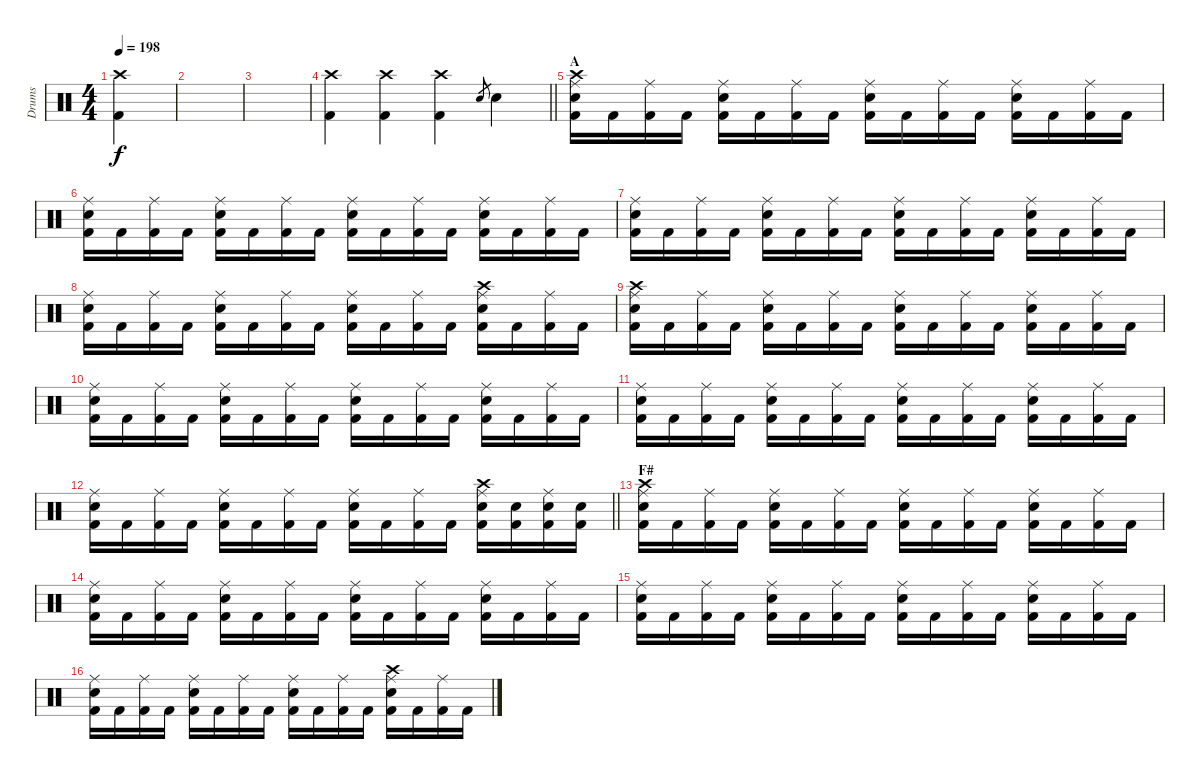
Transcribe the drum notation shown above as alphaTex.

\track ("Drums" "Drums") {instrument percussion}
\staff {score}
\articulation defaults
\ts (4 4)
\tempo 198
\clef neutral
\ks c
("Crash high (hit)" "Kick (hit) 2").4{dy f} |
|
|
\barLineRight lightlight
("Crash high (hit)" "Kick (hit) 2").4 ("Crash high (hit)" "Kick (hit) 2").4 ("Crash high (hit)" "Kick (hit) 2").4 "Snare (hit) 2".8{gr} "Snare (hit) 2".4 |
\section ("" "A")
("Crash high (hit)" "Ride (middle)" "Snare (hit) 2" "Kick (hit) 2").16 "Kick (hit) 2".16 ("Ride (middle)" "Kick (hit) 2").16 "Kick (hit) 2".16 ("Ride (middle)" "Snare (hit) 2" "Kick (hit) 2").16 "Kick (hit) 2".16 ("Ride (middle)" "Kick (hit) 2").16 "Kick (hit) 2".16 ("Ride (middle)" "Snare (hit) 2" "Kick (hit) 2").16 "Kick (hit) 2".16 ("Ride (middle)" "Kick (hit) 2").16 "Kick (hit) 2".16 ("Ride (middle)" "Snare (hit) 2" "Kick (hit) 2").16 "Kick (hit) 2".16 ("Ride (middle)" "Kick (hit) 2").16 "Kick (hit) 2".16 |
("Ride (middle)" "Snare (hit) 2" "Kick (hit) 2").16 "Kick (hit) 2".16 ("Ride (middle)" "Kick (hit) 2").16 "Kick (hit) 2".16 ("Ride (middle)" "Snare (hit) 2" "Kick (hit) 2").16 "Kick (hit) 2".16 ("Ride (middle)" "Kick (hit) 2").16 "Kick (hit) 2".16 ("Ride (middle)" "Snare (hit) 2" "Kick (hit) 2").16 "Kick (hit) 2".16 ("Ride (middle)" "Kick (hit) 2").16 "Kick (hit) 2".16 ("Ride (middle)" "Snare (hit) 2" "Kick (hit) 2").16 "Kick (hit) 2".16 ("Ride (middle)" "Kick (hit) 2").16 "Kick (hit) 2".16 |
("Ride (middle)" "Snare (hit) 2" "Kick (hit) 2").16 "Kick (hit) 2".16 ("Ride (middle)" "Kick (hit) 2").16 "Kick (hit) 2".16 ("Ride (middle)" "Snare (hit) 2" "Kick (hit) 2").16 "Kick (hit) 2".16 ("Ride (middle)" "Kick (hit) 2").16 "Kick (hit) 2".16 ("Ride (middle)" "Snare (hit) 2" "Kick (hit) 2").16 "Kick (hit) 2".16 ("Ride (middle)" "Kick (hit) 2").16 "Kick (hit) 2".16 ("Ride (middle)" "Snare (hit) 2" "Kick (hit) 2").16 "Kick (hit) 2".16 ("Ride (middle)" "Kick (hit) 2").16 "Kick (hit) 2".16 |
("Ride (middle)" "Snare (hit) 2" "Kick (hit) 2").16 "Kick (hit) 2".16 ("Ride (middle)" "Kick (hit) 2").16 "Kick (hit) 2".16 ("Ride (middle)" "Snare (hit) 2" "Kick (hit) 2").16 "Kick (hit) 2".16 ("Ride (middle)" "Kick (hit) 2").16 "Kick (hit) 2".16 ("Ride (middle)" "Snare (hit) 2" "Kick (hit) 2").16 "Kick (hit) 2".16 ("Ride (middle)" "Kick (hit) 2").16 "Kick (hit) 2".16 ("Crash high (hit)" "Ride (middle)" "Snare (hit) 2" "Kick (hit) 2").16 "Kick (hit) 2".16 ("Ride (middle)" "Kick (hit) 2").16 "Kick (hit) 2".16 |
("Crash high (hit)" "Ride (middle)" "Snare (hit) 2" "Kick (hit) 2").16 "Kick (hit) 2".16 ("Ride (middle)" "Kick (hit) 2").16 "Kick (hit) 2".16 ("Ride (middle)" "Snare (hit) 2" "Kick (hit) 2").16 "Kick (hit) 2".16 ("Ride (middle)" "Kick (hit) 2").16 "Kick (hit) 2".16 ("Ride (middle)" "Snare (hit) 2" "Kick (hit) 2").16 "Kick (hit) 2".16 ("Ride (middle)" "Kick (hit) 2").16 "Kick (hit) 2".16 ("Ride (middle)" "Snare (hit) 2" "Kick (hit) 2").16 "Kick (hit) 2".16 ("Ride (middle)" "Kick (hit) 2").16 "Kick (hit) 2".16 |
("Ride (middle)" "Snare (hit) 2" "Kick (hit) 2").16 "Kick (hit) 2".16 ("Ride (middle)" "Kick (hit) 2").16 "Kick (hit) 2".16 ("Ride (middle)" "Snare (hit) 2" "Kick (hit) 2").16 "Kick (hit) 2".16 ("Ride (middle)" "Kick (hit) 2").16 "Kick (hit) 2".16 ("Ride (middle)" "Snare (hit) 2" "Kick (hit) 2").16 "Kick (hit) 2".16 ("Ride (middle)" "Kick (hit) 2").16 "Kick (hit) 2".16 ("Ride (middle)" "Snare (hit) 2" "Kick (hit) 2").16 "Kick (hit) 2".16 ("Ride (middle)" "Kick (hit) 2").16 "Kick (hit) 2".16 |
("Ride (middle)" "Snare (hit) 2" "Kick (hit) 2").16 "Kick (hit) 2".16 ("Ride (middle)" "Kick (hit) 2").16 "Kick (hit) 2".16 ("Ride (middle)" "Snare (hit) 2" "Kick (hit) 2").16 "Kick (hit) 2".16 ("Ride (middle)" "Kick (hit) 2").16 "Kick (hit) 2".16 ("Ride (middle)" "Snare (hit) 2" "Kick (hit) 2").16 "Kick (hit) 2".16 ("Ride (middle)" "Kick (hit) 2").16 "Kick (hit) 2".16 ("Ride (middle)" "Snare (hit) 2" "Kick (hit) 2").16 "Kick (hit) 2".16 ("Ride (middle)" "Kick (hit) 2").16 "Kick (hit) 2".16 |
\barLineRight lightlight
("Ride (middle)" "Snare (hit) 2" "Kick (hit) 2").16 "Kick (hit) 2".16 ("Ride (middle)" "Kick (hit) 2").16 "Kick (hit) 2".16 ("Ride (middle)" "Snare (hit) 2" "Kick (hit) 2").16 "Kick (hit) 2".16 ("Ride (middle)" "Kick (hit) 2").16 "Kick (hit) 2".16 ("Ride (middle)" "Snare (hit) 2" "Kick (hit) 2").16 "Kick (hit) 2".16 ("Ride (middle)" "Kick (hit) 2").16 "Kick (hit) 2".16 ("Crash high (hit)" "Ride (middle)" "Snare (hit) 2" "Kick (hit) 2").16 ("Snare (hit) 2" "Kick (hit) 2").16 ("Ride (middle)" "Snare (hit) 2" "Kick (hit) 2").16 ("Snare (hit) 2" "Kick (hit) 2").16 |
\section ("" "F#")
("Crash high (hit)" "Ride (middle)" "Snare (hit) 2" "Kick (hit) 2").16 "Kick (hit) 2".16 ("Ride (middle)" "Kick (hit) 2").16 "Kick (hit) 2".16 ("Ride (middle)" "Snare (hit) 2" "Kick (hit) 2").16 "Kick (hit) 2".16 ("Ride (middle)" "Kick (hit) 2").16 "Kick (hit) 2".16 ("Ride (middle)" "Snare (hit) 2" "Kick (hit) 2").16 "Kick (hit) 2".16 ("Ride (middle)" "Kick (hit) 2").16 "Kick (hit) 2".16 ("Ride (middle)" "Snare (hit) 2" "Kick (hit) 2").16 "Kick (hit) 2".16 ("Ride (middle)" "Kick (hit) 2").16 "Kick (hit) 2".16 |
("Ride (middle)" "Snare (hit) 2" "Kick (hit) 2").16 "Kick (hit) 2".16 ("Ride (middle)" "Kick (hit) 2").16 "Kick (hit) 2".16 ("Ride (middle)" "Snare (hit) 2" "Kick (hit) 2").16 "Kick (hit) 2".16 ("Ride (middle)" "Kick (hit) 2").16 "Kick (hit) 2".16 ("Ride (middle)" "Snare (hit) 2" "Kick (hit) 2").16 "Kick (hit) 2".16 ("Ride (middle)" "Kick (hit) 2").16 "Kick (hit) 2".16 ("Ride (middle)" "Snare (hit) 2" "Kick (hit) 2").16 "Kick (hit) 2".16 ("Ride (middle)" "Kick (hit) 2").16 "Kick (hit) 2".16 |
("Ride (middle)" "Snare (hit) 2" "Kick (hit) 2").16 "Kick (hit) 2".16 ("Ride (middle)" "Kick (hit) 2").16 "Kick (hit) 2".16 ("Ride (middle)" "Snare (hit) 2" "Kick (hit) 2").16 "Kick (hit) 2".16 ("Ride (middle)" "Kick (hit) 2").16 "Kick (hit) 2".16 ("Ride (middle)" "Snare (hit) 2" "Kick (hit) 2").16 "Kick (hit) 2".16 ("Ride (middle)" "Kick (hit) 2").16 "Kick (hit) 2".16 ("Ride (middle)" "Snare (hit) 2" "Kick (hit) 2").16 "Kick (hit) 2".16 ("Ride (middle)" "Kick (hit) 2").16 "Kick (hit) 2".16 |
("Ride (middle)" "Snare (hit) 2" "Kick (hit) 2").16 "Kick (hit) 2".16 ("Ride (middle)" "Kick (hit) 2").16 "Kick (hit) 2".16 ("Ride (middle)" "Snare (hit) 2" "Kick (hit) 2").16 "Kick (hit) 2".16 ("Ride (middle)" "Kick (hit) 2").16 "Kick (hit) 2".16 ("Ride (middle)" "Snare (hit) 2" "Kick (hit) 2").16 "Kick (hit) 2".16 ("Ride (middle)" "Kick (hit) 2").16 "Kick (hit) 2".16 ("Crash high (hit)" "Ride (middle)" "Snare (hit) 2" "Kick (hit) 2").16 "Kick (hit) 2".16 ("Ride (middle)" "Kick (hit) 2").16 "Kick (hit) 2".16
